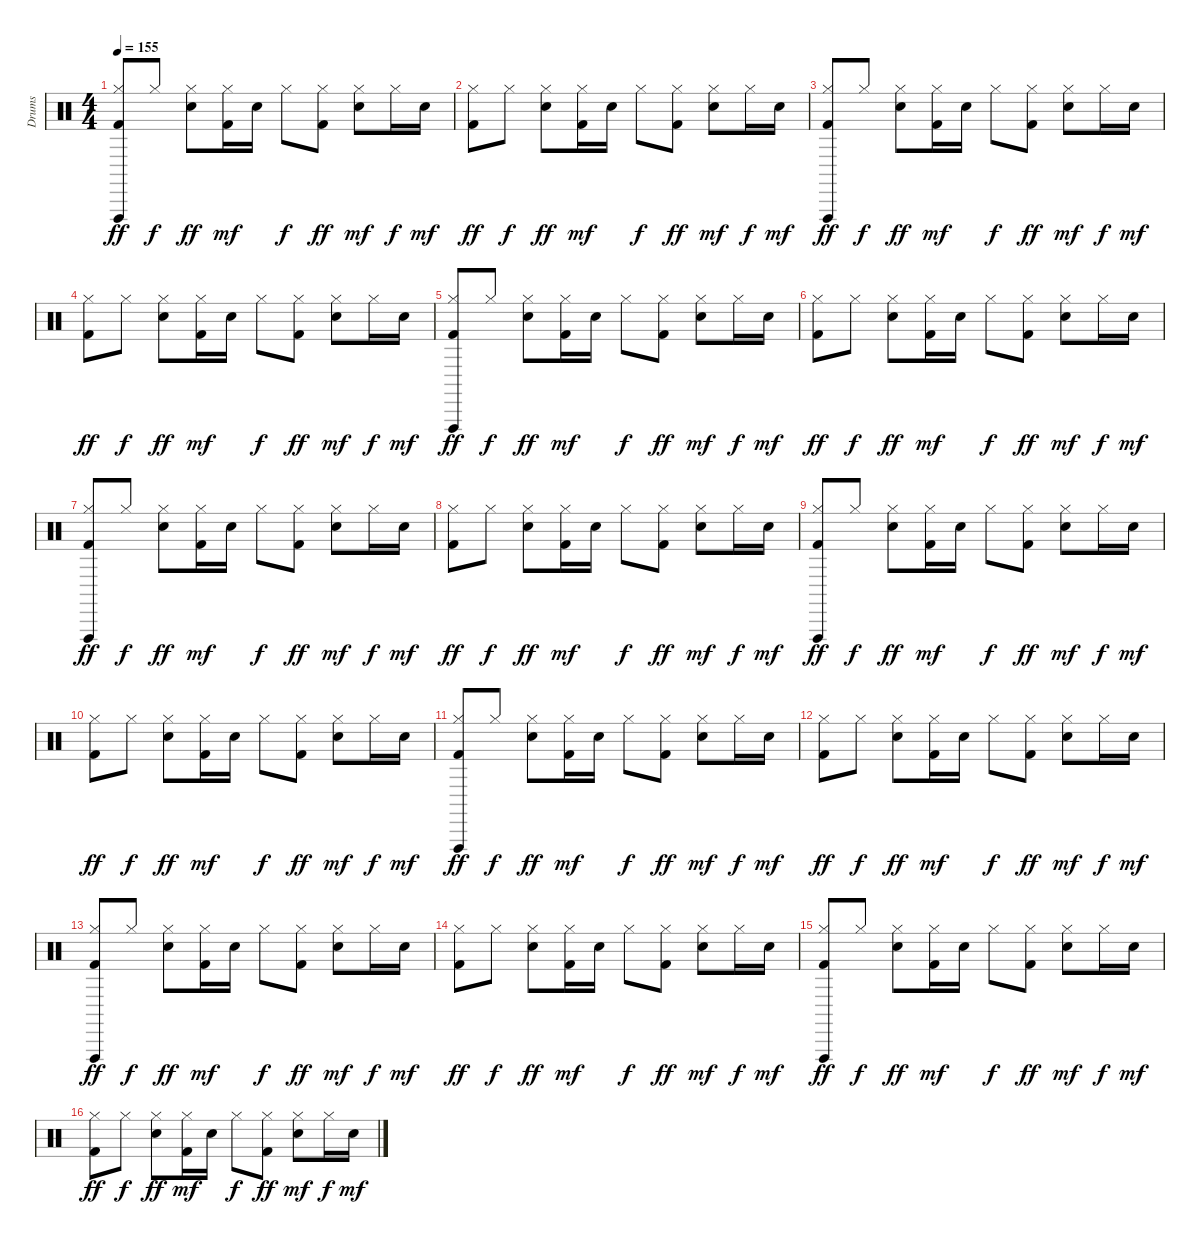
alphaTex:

\track ("Drums" "Drums") {instrument percussion}
\staff {score}
\articulation defaults
\ts (4 4)
\tempo 155
\clef neutral
\ks c
("Kick (hit) 2" "Hi-Hat (closed)" "Vibraslap (hit)").8{dy ff} "Hi-Hat (closed)".8{dy f} ("Snare (hit) 2" "Hi-Hat (closed)").8{dy ff} ("Kick (hit) 2" "Hi-Hat (closed)").16{dy mf} "Snare (hit) 2".16 "Hi-Hat (closed)".8{dy f} ("Kick (hit) 2" "Hi-Hat (closed)").8{dy ff} ("Snare (hit) 2" "Hi-Hat (closed)").8{dy mf} "Hi-Hat (closed)".16{dy f} "Snare (hit) 2".16{dy mf} |
("Kick (hit) 2" "Hi-Hat (closed)").8{dy ff} "Hi-Hat (closed)".8{dy f} ("Snare (hit) 2" "Hi-Hat (closed)").8{dy ff} ("Kick (hit) 2" "Hi-Hat (closed)").16{dy mf} "Snare (hit) 2".16 "Hi-Hat (closed)".8{dy f} ("Kick (hit) 2" "Hi-Hat (closed)").8{dy ff} ("Snare (hit) 2" "Hi-Hat (closed)").8{dy mf} "Hi-Hat (closed)".16{dy f} "Snare (hit) 2".16{dy mf} |
("Kick (hit) 2" "Hi-Hat (closed)" "Vibraslap (hit)").8{dy ff} "Hi-Hat (closed)".8{dy f} ("Snare (hit) 2" "Hi-Hat (closed)").8{dy ff} ("Kick (hit) 2" "Hi-Hat (closed)").16{dy mf} "Snare (hit) 2".16 "Hi-Hat (closed)".8{dy f} ("Kick (hit) 2" "Hi-Hat (closed)").8{dy ff} ("Snare (hit) 2" "Hi-Hat (closed)").8{dy mf} "Hi-Hat (closed)".16{dy f} "Snare (hit) 2".16{dy mf} |
("Kick (hit) 2" "Hi-Hat (closed)").8{dy ff} "Hi-Hat (closed)".8{dy f} ("Snare (hit) 2" "Hi-Hat (closed)").8{dy ff} ("Kick (hit) 2" "Hi-Hat (closed)").16{dy mf} "Snare (hit) 2".16 "Hi-Hat (closed)".8{dy f} ("Kick (hit) 2" "Hi-Hat (closed)").8{dy ff} ("Snare (hit) 2" "Hi-Hat (closed)").8{dy mf} "Hi-Hat (closed)".16{dy f} "Snare (hit) 2".16{dy mf} |
("Kick (hit) 2" "Hi-Hat (closed)" "Vibraslap (hit)").8{dy ff} "Hi-Hat (closed)".8{dy f} ("Snare (hit) 2" "Hi-Hat (closed)").8{dy ff} ("Kick (hit) 2" "Hi-Hat (closed)").16{dy mf} "Snare (hit) 2".16 "Hi-Hat (closed)".8{dy f} ("Kick (hit) 2" "Hi-Hat (closed)").8{dy ff} ("Snare (hit) 2" "Hi-Hat (closed)").8{dy mf} "Hi-Hat (closed)".16{dy f} "Snare (hit) 2".16{dy mf} |
("Kick (hit) 2" "Hi-Hat (closed)").8{dy ff} "Hi-Hat (closed)".8{dy f} ("Snare (hit) 2" "Hi-Hat (closed)").8{dy ff} ("Kick (hit) 2" "Hi-Hat (closed)").16{dy mf} "Snare (hit) 2".16 "Hi-Hat (closed)".8{dy f} ("Kick (hit) 2" "Hi-Hat (closed)").8{dy ff} ("Snare (hit) 2" "Hi-Hat (closed)").8{dy mf} "Hi-Hat (closed)".16{dy f} "Snare (hit) 2".16{dy mf} |
("Kick (hit) 2" "Hi-Hat (closed)" "Vibraslap (hit)").8{dy ff} "Hi-Hat (closed)".8{dy f} ("Snare (hit) 2" "Hi-Hat (closed)").8{dy ff} ("Kick (hit) 2" "Hi-Hat (closed)").16{dy mf} "Snare (hit) 2".16 "Hi-Hat (closed)".8{dy f} ("Kick (hit) 2" "Hi-Hat (closed)").8{dy ff} ("Snare (hit) 2" "Hi-Hat (closed)").8{dy mf} "Hi-Hat (closed)".16{dy f} "Snare (hit) 2".16{dy mf} |
("Kick (hit) 2" "Hi-Hat (closed)").8{dy ff} "Hi-Hat (closed)".8{dy f} ("Snare (hit) 2" "Hi-Hat (closed)").8{dy ff} ("Kick (hit) 2" "Hi-Hat (closed)").16{dy mf} "Snare (hit) 2".16 "Hi-Hat (closed)".8{dy f} ("Kick (hit) 2" "Hi-Hat (closed)").8{dy ff} ("Snare (hit) 2" "Hi-Hat (closed)").8{dy mf} "Hi-Hat (closed)".16{dy f} "Snare (hit) 2".16{dy mf} |
("Kick (hit) 2" "Hi-Hat (closed)" "Vibraslap (hit)").8{dy ff} "Hi-Hat (closed)".8{dy f} ("Snare (hit) 2" "Hi-Hat (closed)").8{dy ff} ("Kick (hit) 2" "Hi-Hat (closed)").16{dy mf} "Snare (hit) 2".16 "Hi-Hat (closed)".8{dy f} ("Kick (hit) 2" "Hi-Hat (closed)").8{dy ff} ("Snare (hit) 2" "Hi-Hat (closed)").8{dy mf} "Hi-Hat (closed)".16{dy f} "Snare (hit) 2".16{dy mf} |
("Kick (hit) 2" "Hi-Hat (closed)").8{dy ff} "Hi-Hat (closed)".8{dy f} ("Snare (hit) 2" "Hi-Hat (closed)").8{dy ff} ("Kick (hit) 2" "Hi-Hat (closed)").16{dy mf} "Snare (hit) 2".16 "Hi-Hat (closed)".8{dy f} ("Kick (hit) 2" "Hi-Hat (closed)").8{dy ff} ("Snare (hit) 2" "Hi-Hat (closed)").8{dy mf} "Hi-Hat (closed)".16{dy f} "Snare (hit) 2".16{dy mf} |
("Kick (hit) 2" "Hi-Hat (closed)" "Vibraslap (hit)").8{dy ff} "Hi-Hat (closed)".8{dy f} ("Snare (hit) 2" "Hi-Hat (closed)").8{dy ff} ("Kick (hit) 2" "Hi-Hat (closed)").16{dy mf} "Snare (hit) 2".16 "Hi-Hat (closed)".8{dy f} ("Kick (hit) 2" "Hi-Hat (closed)").8{dy ff} ("Snare (hit) 2" "Hi-Hat (closed)").8{dy mf} "Hi-Hat (closed)".16{dy f} "Snare (hit) 2".16{dy mf} |
("Kick (hit) 2" "Hi-Hat (closed)").8{dy ff} "Hi-Hat (closed)".8{dy f} ("Snare (hit) 2" "Hi-Hat (closed)").8{dy ff} ("Kick (hit) 2" "Hi-Hat (closed)").16{dy mf} "Snare (hit) 2".16 "Hi-Hat (closed)".8{dy f} ("Kick (hit) 2" "Hi-Hat (closed)").8{dy ff} ("Snare (hit) 2" "Hi-Hat (closed)").8{dy mf} "Hi-Hat (closed)".16{dy f} "Snare (hit) 2".16{dy mf} |
("Kick (hit) 2" "Hi-Hat (closed)" "Vibraslap (hit)").8{dy ff} "Hi-Hat (closed)".8{dy f} ("Snare (hit) 2" "Hi-Hat (closed)").8{dy ff} ("Kick (hit) 2" "Hi-Hat (closed)").16{dy mf} "Snare (hit) 2".16 "Hi-Hat (closed)".8{dy f} ("Kick (hit) 2" "Hi-Hat (closed)").8{dy ff} ("Snare (hit) 2" "Hi-Hat (closed)").8{dy mf} "Hi-Hat (closed)".16{dy f} "Snare (hit) 2".16{dy mf} |
("Kick (hit) 2" "Hi-Hat (closed)").8{dy ff} "Hi-Hat (closed)".8{dy f} ("Snare (hit) 2" "Hi-Hat (closed)").8{dy ff} ("Kick (hit) 2" "Hi-Hat (closed)").16{dy mf} "Snare (hit) 2".16 "Hi-Hat (closed)".8{dy f} ("Kick (hit) 2" "Hi-Hat (closed)").8{dy ff} ("Snare (hit) 2" "Hi-Hat (closed)").8{dy mf} "Hi-Hat (closed)".16{dy f} "Snare (hit) 2".16{dy mf} |
("Kick (hit) 2" "Hi-Hat (closed)" "Vibraslap (hit)").8{dy ff} "Hi-Hat (closed)".8{dy f} ("Snare (hit) 2" "Hi-Hat (closed)").8{dy ff} ("Kick (hit) 2" "Hi-Hat (closed)").16{dy mf} "Snare (hit) 2".16 "Hi-Hat (closed)".8{dy f} ("Kick (hit) 2" "Hi-Hat (closed)").8{dy ff} ("Snare (hit) 2" "Hi-Hat (closed)").8{dy mf} "Hi-Hat (closed)".16{dy f} "Snare (hit) 2".16{dy mf} |
("Kick (hit) 2" "Hi-Hat (closed)").8{dy ff} "Hi-Hat (closed)".8{dy f} ("Snare (hit) 2" "Hi-Hat (closed)").8{dy ff} ("Kick (hit) 2" "Hi-Hat (closed)").16{dy mf} "Snare (hit) 2".16 "Hi-Hat (closed)".8{dy f} ("Kick (hit) 2" "Hi-Hat (closed)").8{dy ff} ("Snare (hit) 2" "Hi-Hat (closed)").8{dy mf} "Hi-Hat (closed)".16{dy f} "Snare (hit) 2".16{dy mf}
